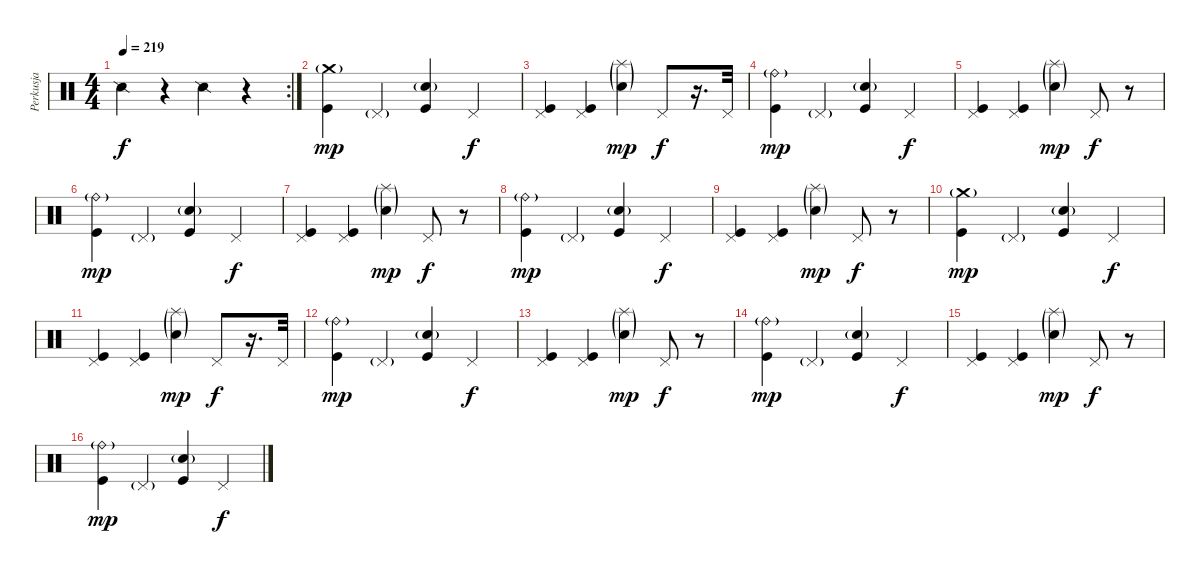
\track ("Perkusja" "Perkusja") {instrument percussion}
\staff {score}
\articulation defaults
\rc 2
\ts (4 4)
\tempo 219
\clef neutral
\ks c "Snare (side stick) 2".4{dy f}
r.4 "Snare (side stick) 2".4 r.4 |
("Crash medium (hit)"{g} "Kick (hit)").4{dy mp} "Pedal Hi-Hat (hit)"{g}.4 ("Snare (hit) 2"{g} "Kick (hit)").4 "Pedal Hi-Hat (hit)".4{dy f} |
("Pedal Hi-Hat (hit)" "Kick (hit)").4 ("Pedal Hi-Hat (hit)" "Kick (hit)").4 ("Splash (hit)"{g} "Snare (hit) 2"{g}).4{dy mp} "Pedal Hi-Hat (hit)".8{dy f} r.16{d} "Pedal Hi-Hat (hit)".32 |
("Ride (bell)"{g} "Kick (hit)").4{dy mp} "Pedal Hi-Hat (hit)"{g}.4 ("Snare (hit) 2"{g} "Kick (hit)").4 "Pedal Hi-Hat (hit)".4{dy f} |
("Pedal Hi-Hat (hit)" "Kick (hit)").4 ("Pedal Hi-Hat (hit)" "Kick (hit)").4 ("Splash (hit)"{g} "Snare (hit) 2"{g}).4{dy mp} "Pedal Hi-Hat (hit)".8{dy f} r.8 |
("Ride (bell)"{g} "Kick (hit)").4{dy mp} "Pedal Hi-Hat (hit)"{g}.4 ("Snare (hit) 2"{g} "Kick (hit)").4 "Pedal Hi-Hat (hit)".4{dy f} |
("Pedal Hi-Hat (hit)" "Kick (hit)").4 ("Pedal Hi-Hat (hit)" "Kick (hit)").4 ("Splash (hit)"{g} "Snare (hit) 2"{g}).4{dy mp} "Pedal Hi-Hat (hit)".8{dy f} r.8 |
("Ride (bell)"{g} "Kick (hit)").4{dy mp} "Pedal Hi-Hat (hit)"{g}.4 ("Snare (hit) 2"{g} "Kick (hit)").4 "Pedal Hi-Hat (hit)".4{dy f} |
("Pedal Hi-Hat (hit)" "Kick (hit)").4 ("Pedal Hi-Hat (hit)" "Kick (hit)").4 ("Splash (hit)"{g} "Snare (hit) 2"{g}).4{dy mp} "Pedal Hi-Hat (hit)".8{dy f} r.8 |
("Crash medium (hit)"{g} "Kick (hit)").4{dy mp} "Pedal Hi-Hat (hit)"{g}.4 ("Snare (hit) 2"{g} "Kick (hit)").4 "Pedal Hi-Hat (hit)".4{dy f} |
("Pedal Hi-Hat (hit)" "Kick (hit)").4 ("Pedal Hi-Hat (hit)" "Kick (hit)").4 ("Splash (hit)"{g} "Snare (hit) 2"{g}).4{dy mp} "Pedal Hi-Hat (hit)".8{dy f} r.16{d} "Pedal Hi-Hat (hit)".32 |
("Ride (bell)"{g} "Kick (hit)").4{dy mp} "Pedal Hi-Hat (hit)"{g}.4 ("Snare (hit) 2"{g} "Kick (hit)").4 "Pedal Hi-Hat (hit)".4{dy f} |
("Pedal Hi-Hat (hit)" "Kick (hit)").4 ("Pedal Hi-Hat (hit)" "Kick (hit)").4 ("Splash (hit)"{g} "Snare (hit) 2"{g}).4{dy mp} "Pedal Hi-Hat (hit)".8{dy f} r.8 |
("Ride (bell)"{g} "Kick (hit)").4{dy mp} "Pedal Hi-Hat (hit)"{g}.4 ("Snare (hit) 2"{g} "Kick (hit)").4 "Pedal Hi-Hat (hit)".4{dy f} |
("Pedal Hi-Hat (hit)" "Kick (hit)").4 ("Pedal Hi-Hat (hit)" "Kick (hit)").4 ("Splash (hit)"{g} "Snare (hit) 2"{g}).4{dy mp} "Pedal Hi-Hat (hit)".8{dy f} r.8 |
("Ride (bell)"{g} "Kick (hit)").4{dy mp} "Pedal Hi-Hat (hit)"{g}.4 ("Snare (hit) 2"{g} "Kick (hit)").4 "Pedal Hi-Hat (hit)".4{dy f}
